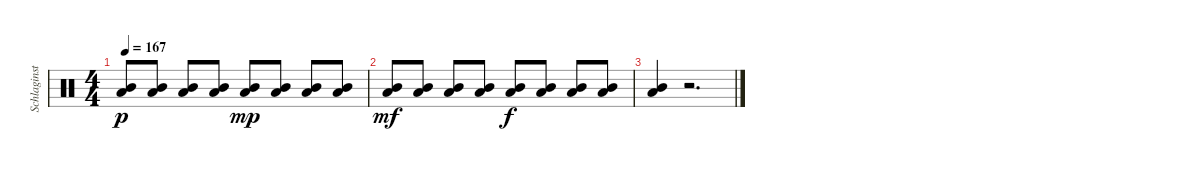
\track ("Schlaginstrumente - Auswahl" "Schlaginst") {instrument percussion}
\staff {score}
\articulation defaults
\ts (4 4)
\tempo 167
\clef neutral
\ks c
("Mid Tom (hit)" "Low Tom (hit)").8{dy p} ("Mid Tom (hit)" "Low Tom (hit)").8 ("Mid Tom (hit)" "Low Tom (hit)").8 ("Mid Tom (hit)" "Low Tom (hit)").8 ("Mid Tom (hit)" "Low Tom (hit)").8{dy mp} ("Mid Tom (hit)" "Low Tom (hit)").8 ("Mid Tom (hit)" "Low Tom (hit)").8 ("Mid Tom (hit)" "Low Tom (hit)").8 |
("Mid Tom (hit)" "Low Tom (hit)").8{dy mf} ("Mid Tom (hit)" "Low Tom (hit)").8 ("Mid Tom (hit)" "Low Tom (hit)").8 ("Mid Tom (hit)" "Low Tom (hit)").8 ("Mid Tom (hit)" "Low Tom (hit)").8{dy f} ("Mid Tom (hit)" "Low Tom (hit)").8 ("Mid Tom (hit)" "Low Tom (hit)").8 ("Mid Tom (hit)" "Low Tom (hit)").8 |
("Mid Tom (hit)" "Low Tom (hit)").4 r.2{d}
